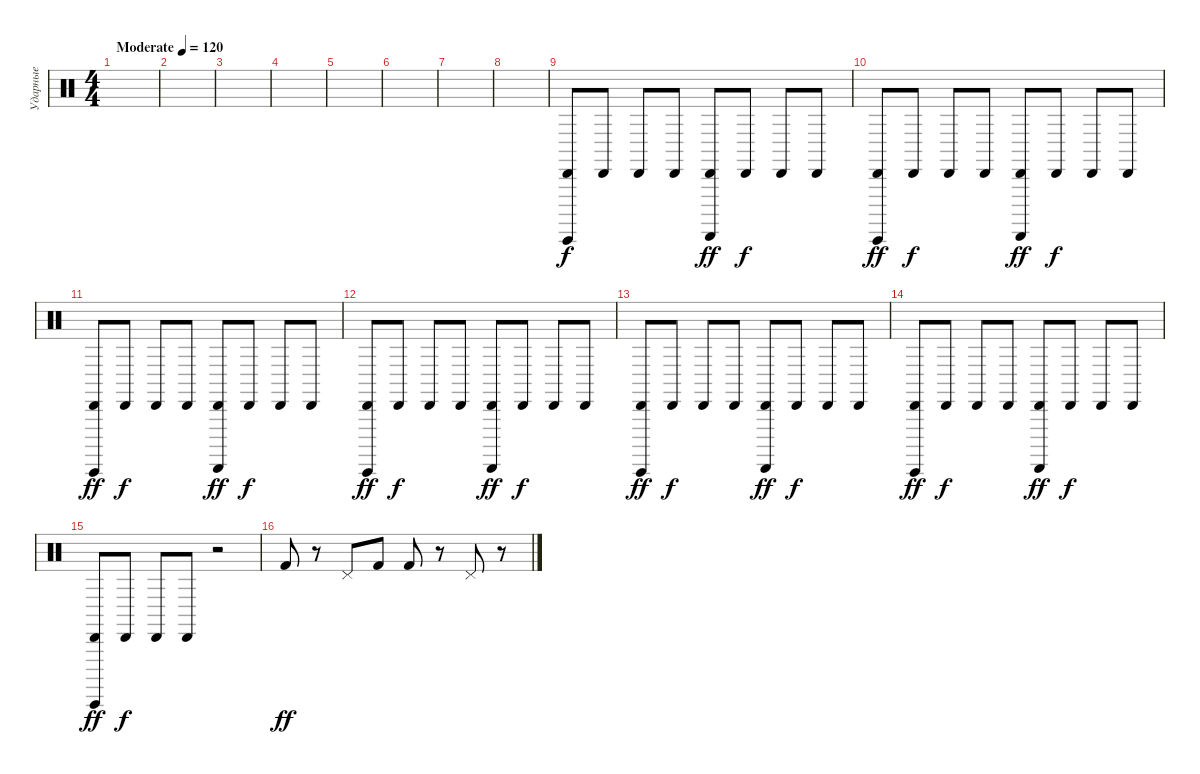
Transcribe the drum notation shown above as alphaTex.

\track ("Ударные" "Ударные") {instrument percussion}
\staff {score}
\articulation defaults
\ts (4 4)
\tempo (120 "Moderate")
\clef neutral
\ks c
|
|
|
|
|
|
|
|
("Cabasa (hit)" "Guiro (hit)").8 "Cabasa (hit)".8{dy f} "Cabasa (hit)".8 "Cabasa (hit)".8 ("Cabasa (hit)" "Guiro (scrap-return)").8{dy ff} "Cabasa (hit)".8{dy f} "Cabasa (hit)".8 "Cabasa (hit)".8 |
("Cabasa (hit)" "Guiro (hit)").8{dy ff} "Cabasa (hit)".8{dy f} "Cabasa (hit)".8 "Cabasa (hit)".8 ("Cabasa (hit)" "Guiro (scrap-return)").8{dy ff} "Cabasa (hit)".8{dy f} "Cabasa (hit)".8 "Cabasa (hit)".8 |
("Cabasa (hit)" "Guiro (hit)").8{dy ff} "Cabasa (hit)".8{dy f} "Cabasa (hit)".8 "Cabasa (hit)".8 ("Cabasa (hit)" "Guiro (scrap-return)").8{dy ff} "Cabasa (hit)".8{dy f} "Cabasa (hit)".8 "Cabasa (hit)".8 |
("Cabasa (hit)" "Guiro (hit)").8{dy ff} "Cabasa (hit)".8{dy f} "Cabasa (hit)".8 "Cabasa (hit)".8 ("Cabasa (hit)" "Guiro (scrap-return)").8{dy ff} "Cabasa (hit)".8{dy f} "Cabasa (hit)".8 "Cabasa (hit)".8 |
("Cabasa (hit)" "Guiro (hit)").8{dy ff} "Cabasa (hit)".8{dy f} "Cabasa (hit)".8 "Cabasa (hit)".8 ("Cabasa (hit)" "Guiro (scrap-return)").8{dy ff} "Cabasa (hit)".8{dy f} "Cabasa (hit)".8 "Cabasa (hit)".8 |
("Cabasa (hit)" "Guiro (hit)").8{dy ff} "Cabasa (hit)".8{dy f} "Cabasa (hit)".8 "Cabasa (hit)".8 ("Cabasa (hit)" "Guiro (scrap-return)").8{dy ff} "Cabasa (hit)".8{dy f} "Cabasa (hit)".8 "Cabasa (hit)".8 |
("Cabasa (hit)" "Guiro (hit)").8{dy ff} "Cabasa (hit)".8{dy f} "Cabasa (hit)".8 "Cabasa (hit)".8 r.2 |
"Kick (hit) 2".8{dy ff} r.8 "Pedal Hi-Hat (hit)".8 "Kick (hit) 2".8 "Kick (hit) 2".8 r.8 "Pedal Hi-Hat (hit)".8 r.8
